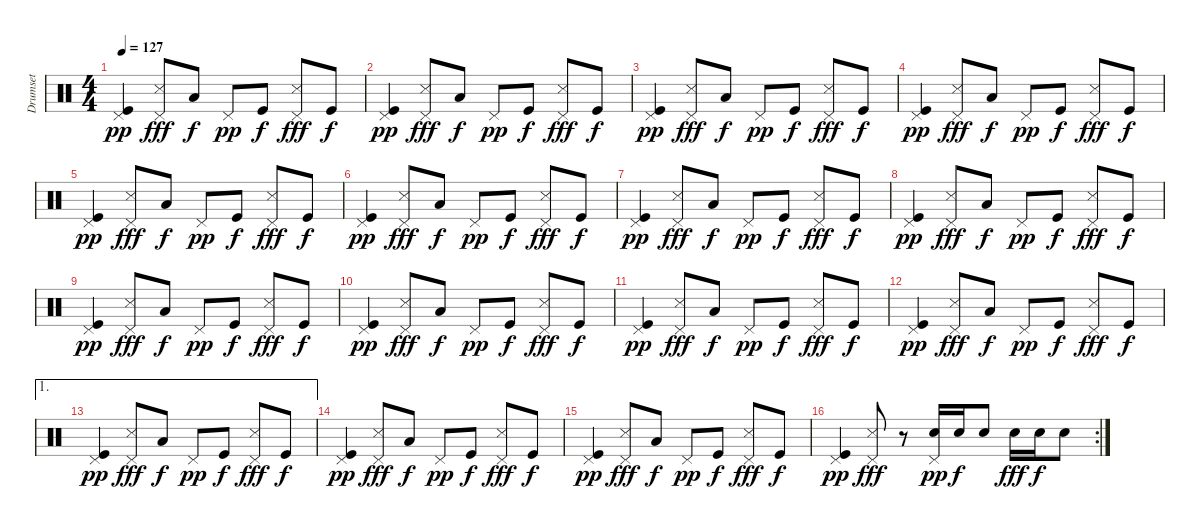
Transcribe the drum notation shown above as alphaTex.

\track ("Drumset" "Drumset") {instrument percussion}
\staff {score}
\articulation defaults
\ts (4 4)
\tempo 127
\clef neutral
\ks c
("Pedal Hi-Hat (hit)" "Kick (hit)").4{dy pp} ("Pedal Hi-Hat (hit)" "Snare (side stick) 3").8{dy fff} "Low Tom (hit)".8{dy f} "Pedal Hi-Hat (hit)".8{dy pp} "Kick (hit)".8{dy f} ("Pedal Hi-Hat (hit)" "Snare (side stick) 3").8{dy fff} "Kick (hit)".8{dy f} |
("Pedal Hi-Hat (hit)" "Kick (hit)").4{dy pp} ("Pedal Hi-Hat (hit)" "Snare (side stick) 3").8{dy fff} "Low Tom (hit)".8{dy f} "Pedal Hi-Hat (hit)".8{dy pp} "Kick (hit)".8{dy f} ("Pedal Hi-Hat (hit)" "Snare (side stick) 3").8{dy fff} "Kick (hit)".8{dy f} |
("Pedal Hi-Hat (hit)" "Kick (hit)").4{dy pp} ("Pedal Hi-Hat (hit)" "Snare (side stick) 3").8{dy fff} "Low Tom (hit)".8{dy f} "Pedal Hi-Hat (hit)".8{dy pp} "Kick (hit)".8{dy f} ("Pedal Hi-Hat (hit)" "Snare (side stick) 3").8{dy fff} "Kick (hit)".8{dy f} |
("Pedal Hi-Hat (hit)" "Kick (hit)").4{dy pp} ("Pedal Hi-Hat (hit)" "Snare (side stick) 3").8{dy fff} "Low Tom (hit)".8{dy f} "Pedal Hi-Hat (hit)".8{dy pp} "Kick (hit)".8{dy f} ("Pedal Hi-Hat (hit)" "Snare (side stick) 3").8{dy fff} "Kick (hit)".8{dy f} |
("Pedal Hi-Hat (hit)" "Kick (hit)").4{dy pp} ("Pedal Hi-Hat (hit)" "Snare (side stick) 3").8{dy fff} "Low Tom (hit)".8{dy f} "Pedal Hi-Hat (hit)".8{dy pp} "Kick (hit)".8{dy f} ("Pedal Hi-Hat (hit)" "Snare (side stick) 3").8{dy fff} "Kick (hit)".8{dy f} |
("Pedal Hi-Hat (hit)" "Kick (hit)").4{dy pp} ("Pedal Hi-Hat (hit)" "Snare (side stick) 3").8{dy fff} "Low Tom (hit)".8{dy f} "Pedal Hi-Hat (hit)".8{dy pp} "Kick (hit)".8{dy f} ("Pedal Hi-Hat (hit)" "Snare (side stick) 3").8{dy fff} "Kick (hit)".8{dy f} |
("Pedal Hi-Hat (hit)" "Kick (hit)").4{dy pp} ("Pedal Hi-Hat (hit)" "Snare (side stick) 3").8{dy fff} "Low Tom (hit)".8{dy f} "Pedal Hi-Hat (hit)".8{dy pp} "Kick (hit)".8{dy f} ("Pedal Hi-Hat (hit)" "Snare (side stick) 3").8{dy fff} "Kick (hit)".8{dy f} |
("Pedal Hi-Hat (hit)" "Kick (hit)").4{dy pp} ("Pedal Hi-Hat (hit)" "Snare (side stick) 3").8{dy fff} "Low Tom (hit)".8{dy f} "Pedal Hi-Hat (hit)".8{dy pp} "Kick (hit)".8{dy f} ("Pedal Hi-Hat (hit)" "Snare (side stick) 3").8{dy fff} "Kick (hit)".8{dy f} |
("Pedal Hi-Hat (hit)" "Kick (hit)").4{dy pp} ("Pedal Hi-Hat (hit)" "Snare (side stick) 3").8{dy fff} "Low Tom (hit)".8{dy f} "Pedal Hi-Hat (hit)".8{dy pp} "Kick (hit)".8{dy f} ("Pedal Hi-Hat (hit)" "Snare (side stick) 3").8{dy fff} "Kick (hit)".8{dy f} |
("Pedal Hi-Hat (hit)" "Kick (hit)").4{dy pp} ("Pedal Hi-Hat (hit)" "Snare (side stick) 3").8{dy fff} "Low Tom (hit)".8{dy f} "Pedal Hi-Hat (hit)".8{dy pp} "Kick (hit)".8{dy f} ("Pedal Hi-Hat (hit)" "Snare (side stick) 3").8{dy fff} "Kick (hit)".8{dy f} |
("Pedal Hi-Hat (hit)" "Kick (hit)").4{dy pp} ("Pedal Hi-Hat (hit)" "Snare (side stick) 3").8{dy fff} "Low Tom (hit)".8{dy f} "Pedal Hi-Hat (hit)".8{dy pp} "Kick (hit)".8{dy f} ("Pedal Hi-Hat (hit)" "Snare (side stick) 3").8{dy fff} "Kick (hit)".8{dy f} |
("Pedal Hi-Hat (hit)" "Kick (hit)").4{dy pp} ("Pedal Hi-Hat (hit)" "Snare (side stick) 3").8{dy fff} "Low Tom (hit)".8{dy f} "Pedal Hi-Hat (hit)".8{dy pp} "Kick (hit)".8{dy f} ("Pedal Hi-Hat (hit)" "Snare (side stick) 3").8{dy fff} "Kick (hit)".8{dy f} |
\ae 1
("Pedal Hi-Hat (hit)" "Kick (hit)").4{dy pp} ("Pedal Hi-Hat (hit)" "Snare (side stick) 3").8{dy fff} "Low Tom (hit)".8{dy f} "Pedal Hi-Hat (hit)".8{dy pp} "Kick (hit)".8{dy f} ("Pedal Hi-Hat (hit)" "Snare (side stick) 3").8{dy fff} "Kick (hit)".8{dy f} |
("Pedal Hi-Hat (hit)" "Kick (hit)").4{dy pp} ("Pedal Hi-Hat (hit)" "Snare (side stick) 3").8{dy fff} "Low Tom (hit)".8{dy f} "Pedal Hi-Hat (hit)".8{dy pp} "Kick (hit)".8{dy f} ("Pedal Hi-Hat (hit)" "Snare (side stick) 3").8{dy fff} "Kick (hit)".8{dy f} |
("Pedal Hi-Hat (hit)" "Kick (hit)").4{dy pp} ("Pedal Hi-Hat (hit)" "Snare (side stick) 3").8{dy fff} "Low Tom (hit)".8{dy f} "Pedal Hi-Hat (hit)".8{dy pp} "Kick (hit)".8{dy f} ("Pedal Hi-Hat (hit)" "Snare (side stick) 3").8{dy fff} "Kick (hit)".8{dy f} |
\rc 2
("Pedal Hi-Hat (hit)" "Kick (hit)").4{dy pp} ("Pedal Hi-Hat (hit)" "Snare (side stick) 3").8{dy fff} r.8 ("Pedal Hi-Hat (hit)" "Electric Snare (hit)").16{dy pp} "Electric Snare (hit)".16{dy f} "Electric Snare (hit)".8 "Electric Snare (hit)".16{dy fff} "Electric Snare (hit)".16{dy f} "Electric Snare (hit)".8
